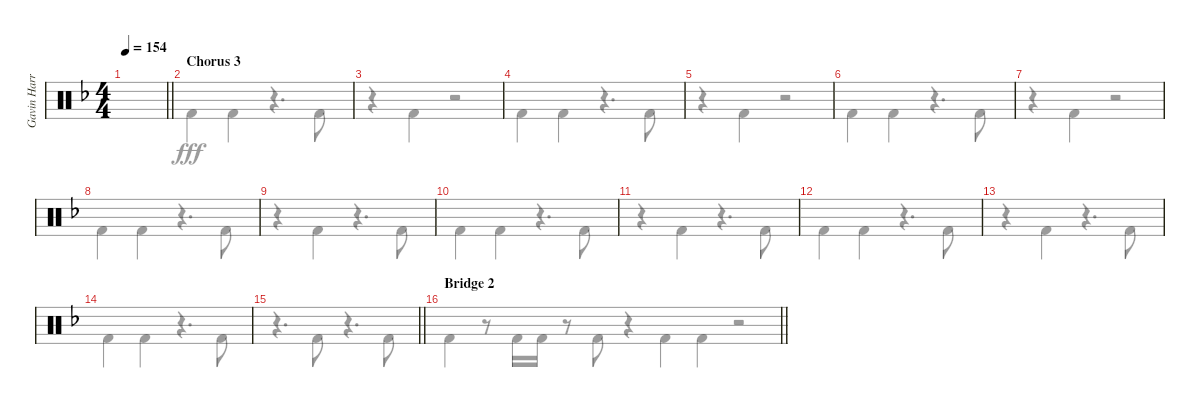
\track ("Gavin Harrison Bass Pedal" "Gavin Harr") {instrument percussion}
\staff {score}
\articulation defaults
\voice
\ts (4 4)
\tempo 154
\clef neutral
\barLineRight lightlight
\ks dminor
|
\section ("" "Chorus 3")
|
|
|
|
|
|
|
|
|
|
|
|
|
\barLineRight lightlight
|
\section ("" "Bridge 2")
\voice
\clef neutral
\barLineRight lightlight
\ks dminor "Kick (hit) 2".4{dy fff}
r.8 "Kick (hit) 2".16 "Kick (hit) 2".16 r.8 "Kick (hit) 2".8 r.4 |
"Kick (hit) 2".4 "Kick (hit) 2".4 r.4{d} "Kick (hit) 2".8 |
r.4 "Kick (hit) 2".4 r.2 |
"Kick (hit) 2".4 "Kick (hit) 2".4 r.4{d} "Kick (hit) 2".8 |
r.4 "Kick (hit) 2".4 r.2 |
"Kick (hit) 2".4 "Kick (hit) 2".4 r.4{d} "Kick (hit) 2".8 |
r.4 "Kick (hit) 2".4 r.2 |
"Kick (hit) 2".4 "Kick (hit) 2".4 r.4{d} "Kick (hit) 2".8 |
r.4 "Kick (hit) 2".4 r.4{d} "Kick (hit) 2".8 |
"Kick (hit) 2".4 "Kick (hit) 2".4 r.4{d} "Kick (hit) 2".8 |
r.4 "Kick (hit) 2".4 r.4{d} "Kick (hit) 2".8 |
"Kick (hit) 2".4 "Kick (hit) 2".4 r.4{d} "Kick (hit) 2".8 |
r.4 "Kick (hit) 2".4 r.4{d} "Kick (hit) 2".8 |
"Kick (hit) 2".4 "Kick (hit) 2".4 r.4{d} "Kick (hit) 2".8 |
\barLineRight lightlight
r.4{d} "Kick (hit) 2".8 r.4{d} "Kick (hit) 2".8 |
"Kick (hit) 2".4 "Kick (hit) 2".4 r.2
